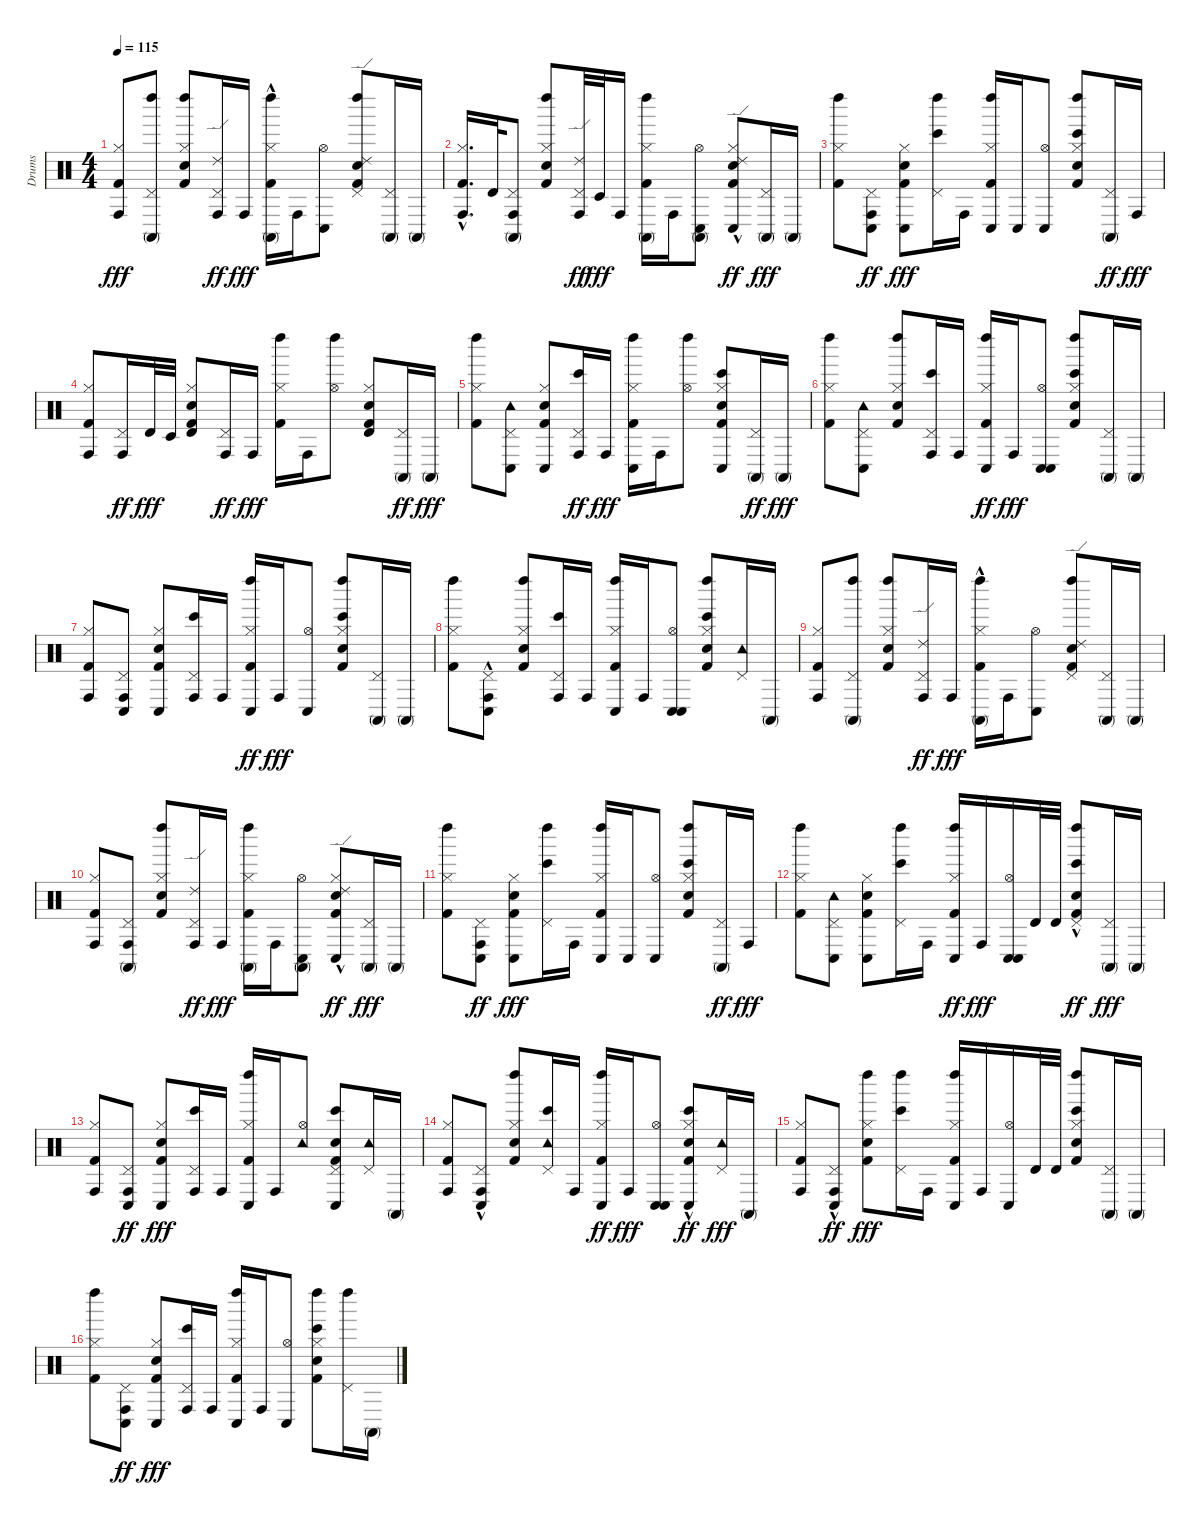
\track ("Drums" "Drums") {instrument percussion}
\staff {score}
\articulation defaults
\ts (4 4)
\tempo 115
\clef neutral
\ks c
("Conga high (hit)" "Hi-Hat (closed)" "Kick (hit) 2").8{dy fff} ("Conga high (mute)" "Left Maraca (hit)" "Pedal Hi-Hat (hit)").8 ("Left Maraca (hit)" "Hi-Hat (closed)" "Snare (hit) 2" "Kick (hit) 2").8 ("Ride (edge) 2" "Conga high (hit)" "Pedal Hi-Hat (hit)").16{dy ff} "Conga high (hit)".16{dy fff} ("Left Maraca (hit)" "Hi-Hat (closed)" "Kick (hit) 2" "Conga high (mute)"{hac}).16 "Conga high (hit)".16 ("Conga low (hit)" "Hi-Hat (open)").8 ("Ride (edge) 2" "Left Maraca (hit)" "Pedal Hi-Hat (hit)" "Snare (hit) 2" "Kick (hit) 2").8 ("Conga high (mute)" "Pedal Hi-Hat (hit)").16 "Conga high (mute)".16 |
("Conga high (hit)"{hac} "Hi-Hat (closed)"{hac} "Kick (hit) 2"{hac}).16{d} "Timbale high (hit)".32 ("Conga high (mute)" "Conga high (hit)" "Pedal Hi-Hat (hit)").8 ("Left Maraca (hit)" "Hi-Hat (closed)" "Snare (hit) 2" "Kick (hit) 2").8 ("Conga high (hit)" "Pedal Hi-Hat (hit)" "Ride (edge) 2").32{dy ff} "Timbale low (hit)".32{dy fff} "Conga high (hit)".16 ("Conga high (mute)" "Left Maraca (hit)" "Hi-Hat (closed)" "Kick (hit) 2").16 "Conga high (hit)".16 ("Conga high (mute)" "Conga low (hit)" "Hi-Hat (open)").8 ("Conga low (hit)" "Hi-Hat (closed)" "Snare (hit) 2" "Kick (hit) 2" "Ride (edge) 2"{hac}).8{dy ff} ("Conga high (mute)" "Pedal Hi-Hat (hit)").16{dy fff} "Conga high (mute)".16 |
("Left Maraca (hit)" "Hi-Hat (closed)" "Kick (hit) 2").8 ("Conga low (hit)" "Conga high (hit)" "Pedal Hi-Hat (hit)").8{dy ff} ("Conga low (hit)" "Hi-Hat (closed)" "Snare (hit) 2" "Kick (hit) 2").8{dy fff} ("Bongo High (hit)" "Left Maraca (hit)" "Pedal Hi-Hat (hit)").16 "Conga high (hit)".16 ("Conga low (hit)" "Left Maraca (hit)" "Hi-Hat (closed)" "Kick (hit) 2").16 "Conga low (hit)".16 ("Conga low (hit)" "Hi-Hat (open)").8 ("Bongo High (hit)" "Left Maraca (hit)" "Hi-Hat (closed)" "Snare (hit) 2" "Kick (hit) 2").8 ("Conga high (mute)" "Pedal Hi-Hat (hit)").16{dy ff} "Conga high (hit)".16{dy fff} |
("Conga high (hit)" "Hi-Hat (closed)" "Kick (hit) 2").8 ("Conga high (hit)" "Pedal Hi-Hat (hit)").16{dy ff} "Timbale high (hit)".32{dy fff} "Timbale low (hit)".32 ("Timbale high (hit)" "Hi-Hat (closed)" "Snare (hit) 2" "Kick (hit) 2").8 ("Conga high (hit)" "Pedal Hi-Hat (hit)").16{dy ff} "Conga high (hit)".16{dy fff} ("Left Maraca (hit)" "Hi-Hat (closed)" "Kick (hit) 2").16 "Conga high (hit)".16 ("Left Maraca (hit)" "Hi-Hat (open)").8 ("Timbale high (hit)" "Hi-Hat (closed)" "Snare (hit) 2" "Kick (hit) 2").8 ("Conga high (mute)" "Pedal Hi-Hat (hit)").16{dy ff} "Conga high (mute)".16{dy fff} |
("Left Maraca (hit)" "Hi-Hat (closed)" "Kick (hit) 2").8 ("Conga low (hit)" "Pedal Hi-Hat (hit)" "Tambourine (hit)").8 ("Conga low (hit)" "Hi-Hat (closed)" "Snare (hit) 2" "Kick (hit) 2").8 ("Bongo High (hit)" "Conga high (hit)" "Pedal Hi-Hat (hit)").16{dy ff} "Conga high (hit)".16{dy fff} ("Conga low (hit)" "Left Maraca (hit)" "Hi-Hat (closed)" "Kick (hit) 2").16 "Conga high (hit)".16 ("Left Maraca (hit)" "Hi-Hat (open)").8 ("Bongo High (hit)" "Conga low (hit)" "Hi-Hat (closed)" "Snare (hit) 2" "Kick (hit) 2").8 ("Conga high (mute)" "Pedal Hi-Hat (hit)").16{dy ff} "Conga high (mute)".16{dy fff} |
("Left Maraca (hit)" "Hi-Hat (closed)" "Kick (hit) 2").8 ("Conga low (hit)" "Pedal Hi-Hat (hit)" "Tambourine (hit)").8 ("Left Maraca (hit)" "Hi-Hat (closed)" "Snare (hit) 2" "Kick (hit) 2").8 ("Bongo High (hit)" "Conga high (hit)" "Pedal Hi-Hat (hit)").16 "Conga high (hit)".16 ("Left Maraca (hit)" "Hi-Hat (closed)" "Kick (hit) 2" "Conga low (hit)").16{dy ff} "Conga high (hit)".16{dy fff} ("Conga low (hit)" "Conga low (hit)" "Hi-Hat (open)").8 ("Bongo High (hit)" "Left Maraca (hit)" "Hi-Hat (closed)" "Snare (hit) 2" "Kick (hit) 2").8 ("Conga high (mute)" "Pedal Hi-Hat (hit)").16 "Conga high (mute)".16 |
("Conga high (hit)" "Hi-Hat (closed)" "Kick (hit) 2").8 ("Conga high (hit)" "Pedal Hi-Hat (hit)" "Conga low (hit)").8 ("Conga low (hit)" "Hi-Hat (closed)" "Snare (hit) 2" "Kick (hit) 2").8 ("Bongo High (hit)" "Conga high (hit)" "Pedal Hi-Hat (hit)").16 "Conga high (hit)".16 ("Left Maraca (hit)" "Hi-Hat (closed)" "Kick (hit) 2" "Conga low (hit)").16{dy ff} "Conga high (hit)".16{dy fff} ("Conga low (hit)" "Hi-Hat (open)").8 ("Bongo High (hit)" "Left Maraca (hit)" "Hi-Hat (closed)" "Snare (hit) 2" "Kick (hit) 2").8 ("Conga high (mute)" "Pedal Hi-Hat (hit)").16 "Conga high (mute)".16 |
("Left Maraca (hit)" "Hi-Hat (closed)" "Kick (hit) 2").8 ("Conga high (hit)" "Pedal Hi-Hat (hit)" "Conga low (hit)"{hac}).8 ("Left Maraca (hit)" "Hi-Hat (closed)" "Snare (hit) 2" "Kick (hit) 2").8 ("Bongo High (hit)" "Conga high (hit)" "Pedal Hi-Hat (hit)").16 "Conga high (hit)".16 ("Conga low (hit)" "Left Maraca (hit)" "Hi-Hat (closed)" "Kick (hit) 2").16 "Conga high (hit)".16 ("Conga low (hit)" "Conga low (hit)" "Hi-Hat (open)").8 ("Bongo High (hit)" "Left Maraca (hit)" "Hi-Hat (closed)" "Snare (hit) 2" "Kick (hit) 2").8 ("Pedal Hi-Hat (hit)" "Tambourine (hit)").16 "Conga high (mute)".16 |
("Conga high (hit)" "Hi-Hat (closed)" "Kick (hit) 2").8 ("Conga high (mute)" "Left Maraca (hit)" "Pedal Hi-Hat (hit)").8 ("Left Maraca (hit)" "Hi-Hat (closed)" "Snare (hit) 2" "Kick (hit) 2").8 ("Ride (edge) 2" "Conga high (hit)" "Pedal Hi-Hat (hit)").16{dy ff} "Conga high (hit)".16{dy fff} ("Left Maraca (hit)" "Hi-Hat (closed)" "Kick (hit) 2" "Conga high (mute)"{hac}).16 "Conga high (hit)".16 ("Conga low (hit)" "Hi-Hat (open)").8 ("Ride (edge) 2" "Left Maraca (hit)" "Pedal Hi-Hat (hit)" "Snare (hit) 2" "Kick (hit) 2").8 ("Conga high (mute)" "Pedal Hi-Hat (hit)").16 "Conga high (mute)".16 |
("Conga high (hit)" "Hi-Hat (closed)" "Kick (hit) 2").8 ("Conga high (mute)" "Conga high (hit)" "Pedal Hi-Hat (hit)").8 ("Left Maraca (hit)" "Hi-Hat (closed)" "Snare (hit) 2" "Kick (hit) 2").8 ("Conga high (hit)" "Pedal Hi-Hat (hit)" "Ride (edge) 2").16{dy ff} "Conga high (hit)".16{dy fff} ("Conga high (mute)" "Left Maraca (hit)" "Hi-Hat (closed)" "Kick (hit) 2").16 "Conga high (hit)".16 ("Conga high (mute)" "Conga low (hit)" "Hi-Hat (open)").8 ("Conga low (hit)" "Hi-Hat (closed)" "Snare (hit) 2" "Kick (hit) 2" "Ride (edge) 2"{hac}).8{dy ff} ("Conga high (mute)" "Pedal Hi-Hat (hit)").16{dy fff} "Conga high (mute)".16 |
("Left Maraca (hit)" "Hi-Hat (closed)" "Kick (hit) 2").8 ("Conga low (hit)" "Conga high (hit)" "Pedal Hi-Hat (hit)").8{dy ff} ("Conga low (hit)" "Hi-Hat (closed)" "Snare (hit) 2" "Kick (hit) 2").8{dy fff} ("Bongo High (hit)" "Left Maraca (hit)" "Pedal Hi-Hat (hit)").16 "Conga high (hit)".16 ("Conga low (hit)" "Left Maraca (hit)" "Hi-Hat (closed)" "Kick (hit) 2").16 "Conga low (hit)".16 ("Conga low (hit)" "Hi-Hat (open)").8 ("Bongo High (hit)" "Left Maraca (hit)" "Hi-Hat (closed)" "Snare (hit) 2" "Kick (hit) 2").8 ("Conga high (mute)" "Pedal Hi-Hat (hit)").16{dy ff} "Conga high (hit)".16{dy fff} |
("Left Maraca (hit)" "Hi-Hat (closed)" "Kick (hit) 2").8 ("Pedal Hi-Hat (hit)" "Tambourine (hit)" "Conga low (hit)").8 ("Conga low (hit)" "Hi-Hat (closed)" "Snare (hit) 2" "Kick (hit) 2").8 ("Bongo High (hit)" "Left Maraca (hit)" "Pedal Hi-Hat (hit)").16 "Conga high (hit)".16 ("Left Maraca (hit)" "Hi-Hat (closed)" "Kick (hit) 2" "Conga low (hit)").16{dy ff} "Conga high (hit)".16{dy fff} ("Conga low (hit)" "Conga low (hit)" "Hi-Hat (open)").16 "Timbale high (hit)".32 "Timbale high (hit)".32 ("Left Maraca (hit)" "Pedal Hi-Hat (hit)" "Snare (hit) 2" "Kick (hit) 2" "Bongo High (hit)"{hac}).8{dy ff} ("Conga high (mute)" "Pedal Hi-Hat (hit)").16{dy fff} "Conga high (mute)".16 |
("Conga high (hit)" "Hi-Hat (closed)" "Kick (hit) 2").8 ("Conga high (hit)" "Pedal Hi-Hat (hit)" "Conga low (hit)").8{dy ff} ("Conga low (hit)" "Hi-Hat (closed)" "Snare (hit) 2" "Kick (hit) 2").8{dy fff} ("Bongo High (hit)" "Conga high (hit)" "Pedal Hi-Hat (hit)").16 "Conga high (hit)".16 ("Conga low (hit)" "Left Maraca (hit)" "Hi-Hat (closed)" "Kick (hit) 2").16 "Conga high (hit)".16 ("Hi-Hat (open)" "Tambourine (hit)").8 ("Bongo High (hit)" "Conga low (hit)" "Pedal Hi-Hat (hit)" "Snare (hit) 2" "Kick (hit) 2").8 ("Pedal Hi-Hat (hit)" "Tambourine (hit)").16 "Conga high (mute)".16 |
("Conga high (hit)" "Hi-Hat (closed)" "Kick (hit) 2").8 ("Conga high (hit)" "Pedal Hi-Hat (hit)" "Conga low (hit)"{hac}).8 ("Left Maraca (hit)" "Hi-Hat (closed)" "Snare (hit) 2" "Kick (hit) 2").8 ("Bongo High (hit)" "Pedal Hi-Hat (hit)" "Tambourine (hit)").16 "Conga high (hit)".16 ("Left Maraca (hit)" "Hi-Hat (closed)" "Kick (hit) 2" "Conga low (hit)").16{dy ff} "Conga high (hit)".16{dy fff} ("Conga low (hit)" "Conga low (hit)" "Hi-Hat (open)").8 ("Conga low (hit)" "Hi-Hat (closed)" "Snare (hit) 2" "Kick (hit) 2" "Bongo High (hit)"{hac}).8{dy ff} ("Pedal Hi-Hat (hit)" "Tambourine (hit)").16{dy fff} "Conga high (mute)".16 |
("Conga high (hit)" "Hi-Hat (closed)" "Kick (hit) 2").8 ("Conga high (hit)" "Pedal Hi-Hat (hit)" "Conga low (hit)"{hac}).8{dy ff} ("Left Maraca (hit)" "Hi-Hat (closed)" "Snare (hit) 2" "Kick (hit) 2").8{dy fff} ("Bongo High (hit)" "Left Maraca (hit)" "Pedal Hi-Hat (hit)").16 "Conga high (hit)".16 ("Conga low (hit)" "Left Maraca (hit)" "Hi-Hat (closed)" "Kick (hit) 2").16 "Conga high (hit)".16 ("Conga low (hit)" "Hi-Hat (open)").16 "Timbale high (hit)".32 "Timbale high (hit)".32 ("Bongo High (hit)" "Left Maraca (hit)" "Hi-Hat (closed)" "Snare (hit) 2" "Kick (hit) 2").8 ("Conga high (mute)" "Pedal Hi-Hat (hit)").16 "Conga high (mute)".16 |
("Left Maraca (hit)" "Hi-Hat (closed)" "Kick (hit) 2").8 ("Conga high (hit)" "Pedal Hi-Hat (hit)" "Conga low (hit)").8{dy ff} ("Conga low (hit)" "Hi-Hat (closed)" "Snare (hit) 2" "Kick (hit) 2").8{dy fff} ("Bongo High (hit)" "Conga high (hit)" "Pedal Hi-Hat (hit)").16 "Conga high (hit)".16 ("Conga low (hit)" "Left Maraca (hit)" "Hi-Hat (closed)" "Kick (hit) 2").16 "Conga high (hit)".16 ("Conga low (hit)" "Hi-Hat (open)").8 ("Bongo High (hit)" "Left Maraca (hit)" "Hi-Hat (closed)" "Snare (hit) 2" "Kick (hit) 2").8 ("Left Maraca (hit)" "Pedal Hi-Hat (hit)").16 "Conga high (mute)".16
